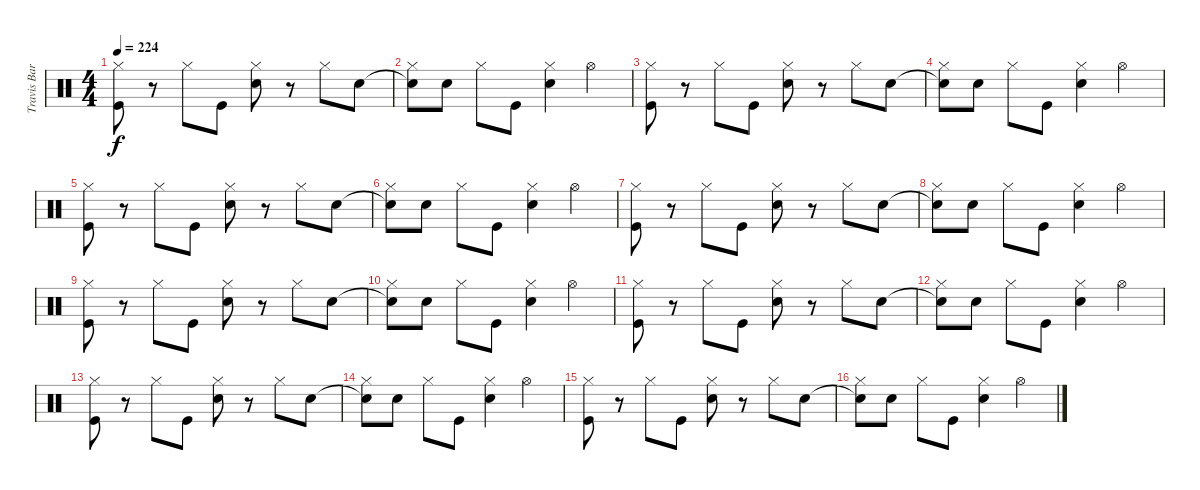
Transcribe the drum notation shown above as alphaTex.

\track ("Travis Barker (Drums)" "Travis Bar") {instrument percussion}
\staff {score}
\articulation defaults
\ts (4 4)
\tempo 224
\clef neutral
\ks c
("Kick (hit)" "Hi-Hat (closed)").8{dy f} r.8 "Hi-Hat (closed)".8 "Kick (hit)".8 ("Electric Snare (hit)" "Hi-Hat (closed)").8 r.8 "Hi-Hat (closed)".8 "Electric Snare (hit)".8 |
("Electric Snare (hit)"{t} "Hi-Hat (closed)").8 "Electric Snare (hit)".8 "Hi-Hat (closed)".8 "Kick (hit)".8 ("Electric Snare (hit)" "Hi-Hat (closed)").4 "Hi-Hat (open)".4 |
("Kick (hit)" "Hi-Hat (closed)").8 r.8 "Hi-Hat (closed)".8 "Kick (hit)".8 ("Electric Snare (hit)" "Hi-Hat (closed)").8 r.8 "Hi-Hat (closed)".8 "Electric Snare (hit)".8 |
("Electric Snare (hit)"{t} "Hi-Hat (closed)").8 "Electric Snare (hit)".8 "Hi-Hat (closed)".8 "Kick (hit)".8 ("Electric Snare (hit)" "Hi-Hat (closed)").4 "Hi-Hat (open)".4 |
("Kick (hit)" "Hi-Hat (closed)").8 r.8 "Hi-Hat (closed)".8 "Kick (hit)".8 ("Electric Snare (hit)" "Hi-Hat (closed)").8 r.8 "Hi-Hat (closed)".8 "Electric Snare (hit)".8 |
("Electric Snare (hit)"{t} "Hi-Hat (closed)").8 "Electric Snare (hit)".8 "Hi-Hat (closed)".8 "Kick (hit)".8 ("Electric Snare (hit)" "Hi-Hat (closed)").4 "Hi-Hat (open)".4 |
("Kick (hit)" "Hi-Hat (closed)").8 r.8 "Hi-Hat (closed)".8 "Kick (hit)".8 ("Electric Snare (hit)" "Hi-Hat (closed)").8 r.8 "Hi-Hat (closed)".8 "Electric Snare (hit)".8 |
("Electric Snare (hit)"{t} "Hi-Hat (closed)").8 "Electric Snare (hit)".8 "Hi-Hat (closed)".8 "Kick (hit)".8 ("Electric Snare (hit)" "Hi-Hat (closed)").4 "Hi-Hat (open)".4 |
("Kick (hit)" "Hi-Hat (closed)").8 r.8 "Hi-Hat (closed)".8 "Kick (hit)".8 ("Electric Snare (hit)" "Hi-Hat (closed)").8 r.8 "Hi-Hat (closed)".8 "Electric Snare (hit)".8 |
("Electric Snare (hit)"{t} "Hi-Hat (closed)").8 "Electric Snare (hit)".8 "Hi-Hat (closed)".8 "Kick (hit)".8 ("Electric Snare (hit)" "Hi-Hat (closed)").4 "Hi-Hat (open)".4 |
("Kick (hit)" "Hi-Hat (closed)").8 r.8 "Hi-Hat (closed)".8 "Kick (hit)".8 ("Electric Snare (hit)" "Hi-Hat (closed)").8 r.8 "Hi-Hat (closed)".8 "Electric Snare (hit)".8 |
("Electric Snare (hit)"{t} "Hi-Hat (closed)").8 "Electric Snare (hit)".8 "Hi-Hat (closed)".8 "Kick (hit)".8 ("Electric Snare (hit)" "Hi-Hat (closed)").4 "Hi-Hat (open)".4 |
("Kick (hit)" "Hi-Hat (closed)").8 r.8 "Hi-Hat (closed)".8 "Kick (hit)".8 ("Electric Snare (hit)" "Hi-Hat (closed)").8 r.8 "Hi-Hat (closed)".8 "Electric Snare (hit)".8 |
("Electric Snare (hit)"{t} "Hi-Hat (closed)").8 "Electric Snare (hit)".8 "Hi-Hat (closed)".8 "Kick (hit)".8 ("Electric Snare (hit)" "Hi-Hat (closed)").4 "Hi-Hat (open)".4 |
("Kick (hit)" "Hi-Hat (closed)").8 r.8 "Hi-Hat (closed)".8 "Kick (hit)".8 ("Electric Snare (hit)" "Hi-Hat (closed)").8 r.8 "Hi-Hat (closed)".8 "Electric Snare (hit)".8 |
("Electric Snare (hit)"{t} "Hi-Hat (closed)").8 "Electric Snare (hit)".8 "Hi-Hat (closed)".8 "Kick (hit)".8 ("Electric Snare (hit)" "Hi-Hat (closed)").4 "Hi-Hat (open)".4
